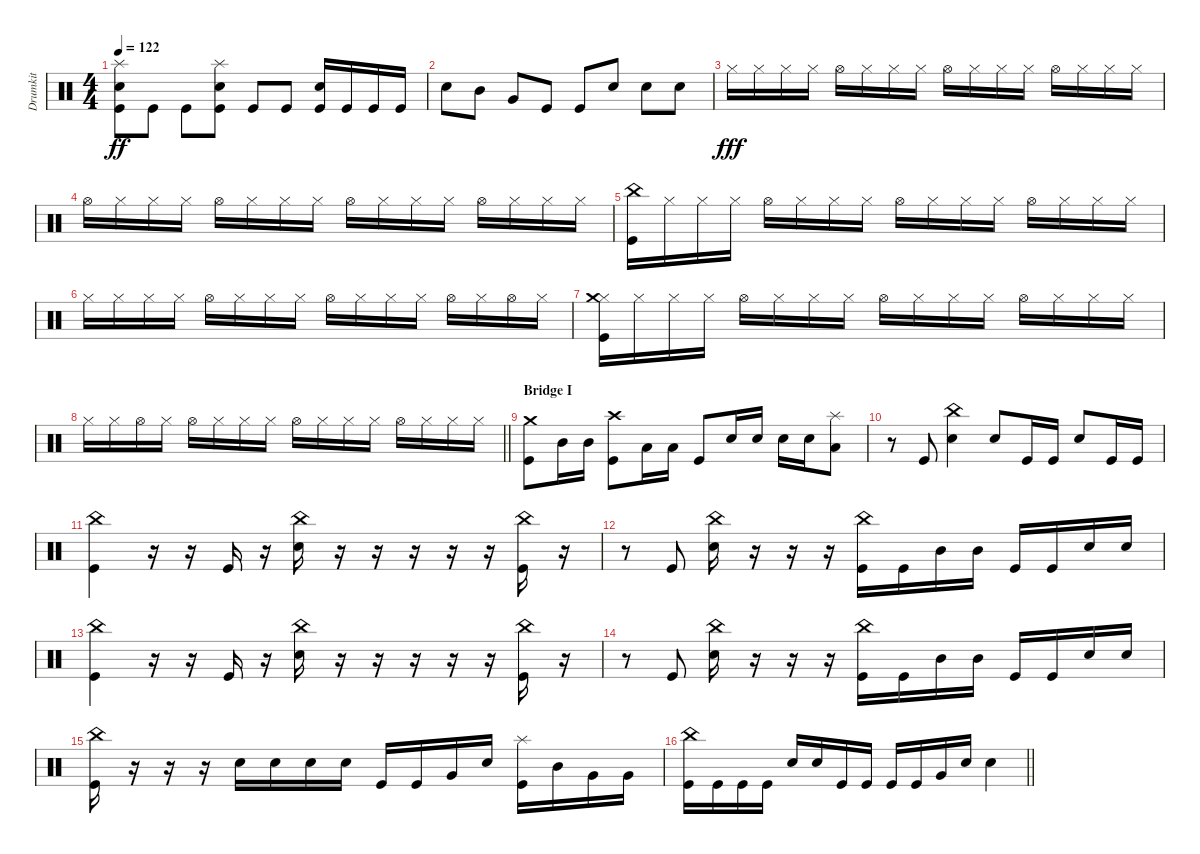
\track ("Drumkit" "Drumkit") {mute instrument percussion}
\staff {score}
\articulation defaults
\ts (4 4)
\tempo 122
\clef neutral
\ks c
("Kick (hit)" "Snare (hit) 2" "Splash (hit)").8{dy ff} "Kick (hit)".8 "Kick (hit)".8 ("Kick (hit)" "Splash (hit)" "Snare (hit) 2").8 "Kick (hit)".8 "Kick (hit)".8 ("Kick (hit)" "Snare (hit) 2").16 "Kick (hit)".16 "Kick (hit)".16 "Kick (hit)".16 |
"Snare (hit) 2".8 "Mid Tom (hit)".8 "Very Low Tom (hit)".8 "Kick (hit)".8 "Kick (hit)".8 "Snare (hit) 2".8 "Snare (hit) 2".8 "Snare (hit) 2".8 |
"Hi-Hat (closed)".16{dy fff} "Hi-Hat (closed)".16 "Hi-Hat (closed)".16 "Hi-Hat (closed)".16 "Hi-Hat (open)".16 "Hi-Hat (closed)".16 "Hi-Hat (closed)".16 "Hi-Hat (closed)".16 "Hi-Hat (open)".16 "Hi-Hat (closed)".16 "Hi-Hat (closed)".16 "Hi-Hat (closed)".16 "Hi-Hat (open)".16 "Hi-Hat (closed)".16 "Hi-Hat (closed)".16 "Hi-Hat (closed)".16 |
"Hi-Hat (open)".16 "Hi-Hat (closed)".16 "Hi-Hat (closed)".16 "Hi-Hat (closed)".16 "Hi-Hat (open)".16 "Hi-Hat (closed)".16 "Hi-Hat (closed)".16 "Hi-Hat (closed)".16 "Hi-Hat (open)".16 "Hi-Hat (closed)".16 "Hi-Hat (closed)".16 "Hi-Hat (closed)".16 "Hi-Hat (open)".16 "Hi-Hat (closed)".16 "Hi-Hat (closed)".16 "Hi-Hat (closed)".16 |
("China (hit)" "Kick (hit)").16 "Hi-Hat (closed)".16 "Hi-Hat (closed)".16 "Hi-Hat (closed)".16 "Hi-Hat (open)".16 "Hi-Hat (closed)".16 "Hi-Hat (closed)".16 "Hi-Hat (closed)".16 "Hi-Hat (open)".16 "Hi-Hat (closed)".16 "Hi-Hat (closed)".16 "Hi-Hat (closed)".16 "Hi-Hat (open)".16 "Hi-Hat (closed)".16 "Hi-Hat (closed)".16 "Hi-Hat (closed)".16 |
"Hi-Hat (closed)".16 "Hi-Hat (closed)".16 "Hi-Hat (closed)".16 "Hi-Hat (closed)".16 "Hi-Hat (open)".16 "Hi-Hat (closed)".16 "Hi-Hat (closed)".16 "Hi-Hat (closed)".16 "Hi-Hat (open)".16 "Hi-Hat (closed)".16 "Hi-Hat (closed)".16 "Hi-Hat (closed)".16 "Hi-Hat (open)".16 "Hi-Hat (closed)".16 "Hi-Hat (open)".16 "Hi-Hat (closed)".16 |
("Hi-Hat (closed)" "Crash medium (hit)" "Kick (hit)").16 "Hi-Hat (closed)".16 "Hi-Hat (closed)".16 "Hi-Hat (closed)".16 "Hi-Hat (open)".16 "Hi-Hat (closed)".16 "Hi-Hat (closed)".16 "Hi-Hat (closed)".16 "Hi-Hat (open)".16 "Hi-Hat (closed)".16 "Hi-Hat (closed)".16 "Hi-Hat (closed)".16 "Hi-Hat (open)".16 "Hi-Hat (closed)".16 "Hi-Hat (closed)".16 "Hi-Hat (closed)".16 |
\barLineRight lightlight "Hi-Hat (closed)".16 "Hi-Hat (closed)".16 "Hi-Hat (open)".16 "Hi-Hat (closed)".16 "Hi-Hat (open)".16 "Hi-Hat (closed)".16 "Hi-Hat (closed)".16 "Hi-Hat (closed)".16 "Hi-Hat (open)".16 "Hi-Hat (closed)".16 "Hi-Hat (closed)".16 "Hi-Hat (closed)".16 "Hi-Hat (open)".16 "Hi-Hat (closed)".16 "Hi-Hat (closed)".16 "Hi-Hat (closed)".16
|
\section ("" "Bridge I")
("Kick (hit)" "Crash medium (hit)").8 "Mid Tom (hit)".16 "Mid Tom (hit)".16 ("Kick (hit)" "Crash high (hit)").8 "Low Tom (hit)".16 "Low Tom (hit)".16 "Kick (hit)".8 "Snare (hit) 2".16 "Snare (hit) 2".16 "Snare (hit) 2".16 "Snare (hit) 2".16 ("Low Floor Tom (hit)" "Splash (hit)").8 |
r.8 "Kick (hit)".8 ("Snare (hit) 2" "China (hit)").4 "Snare (hit) 2".8 "Kick (hit)".16 "Kick (hit)".16 "Snare (hit) 2".8 "Kick (hit)".16 "Kick (hit)".16 |
("Kick (hit)" "China (hit)").4 r.16 r.16 "Kick (hit)".16 r.16 ("China (hit)" "Snare (hit) 2").16 r.16 r.16 r.16 r.16 r.16 ("Kick (hit)" "China (hit)").16 r.16 |
r.8 "Kick (hit)".8 ("Snare (hit) 2" "China (hit)").16 r.16 r.16 r.16 ("Kick (hit)" "China (hit)").16 "Kick (hit)".16 "Mid Tom (hit)".16 "Mid Tom (hit)".16 "Kick (hit)".16 "Kick (hit)".16 "Snare (hit) 2".16 "Snare (hit) 2".16 |
("Kick (hit)" "China (hit)").4 r.16 r.16 "Kick (hit)".16 r.16 ("China (hit)" "Snare (hit) 2").16 r.16 r.16 r.16 r.16 r.16 ("Kick (hit)" "China (hit)").16 r.16 |
r.8 "Kick (hit)".8 ("Snare (hit) 2" "China (hit)").16 r.16 r.16 r.16 ("Kick (hit)" "China (hit)").16 "Kick (hit)".16 "Mid Tom (hit)".16 "Mid Tom (hit)".16 "Kick (hit)".16 "Kick (hit)".16 "Snare (hit) 2".16 "Snare (hit) 2".16 |
("Kick (hit)" "China (hit)").16 r.16 r.16 r.16 "Snare (hit) 2".16 "Snare (hit) 2".16 "Snare (hit) 2".16 "Snare (hit) 2".16 "Kick (hit)".16 "Kick (hit)".16 "Very Low Tom (hit)".16 "Snare (hit) 2".16 ("Kick (hit)" "Splash (hit)").16 "Mid Tom (hit)".16 "Very Low Tom (hit)".16 "Very Low Tom (hit)".16 |
\barLineRight lightlight
("Kick (hit)" "China (hit)").16 "Kick (hit)".16 "Kick (hit)".16 "Kick (hit)".16 "Snare (hit) 2".16 "Snare (hit) 2".16 "Kick (hit)".16 "Kick (hit)".16 "Kick (hit)".16 "Kick (hit)".16 "Very Low Tom (hit)".16 "Snare (hit) 2".16 "Snare (hit) 2".4
